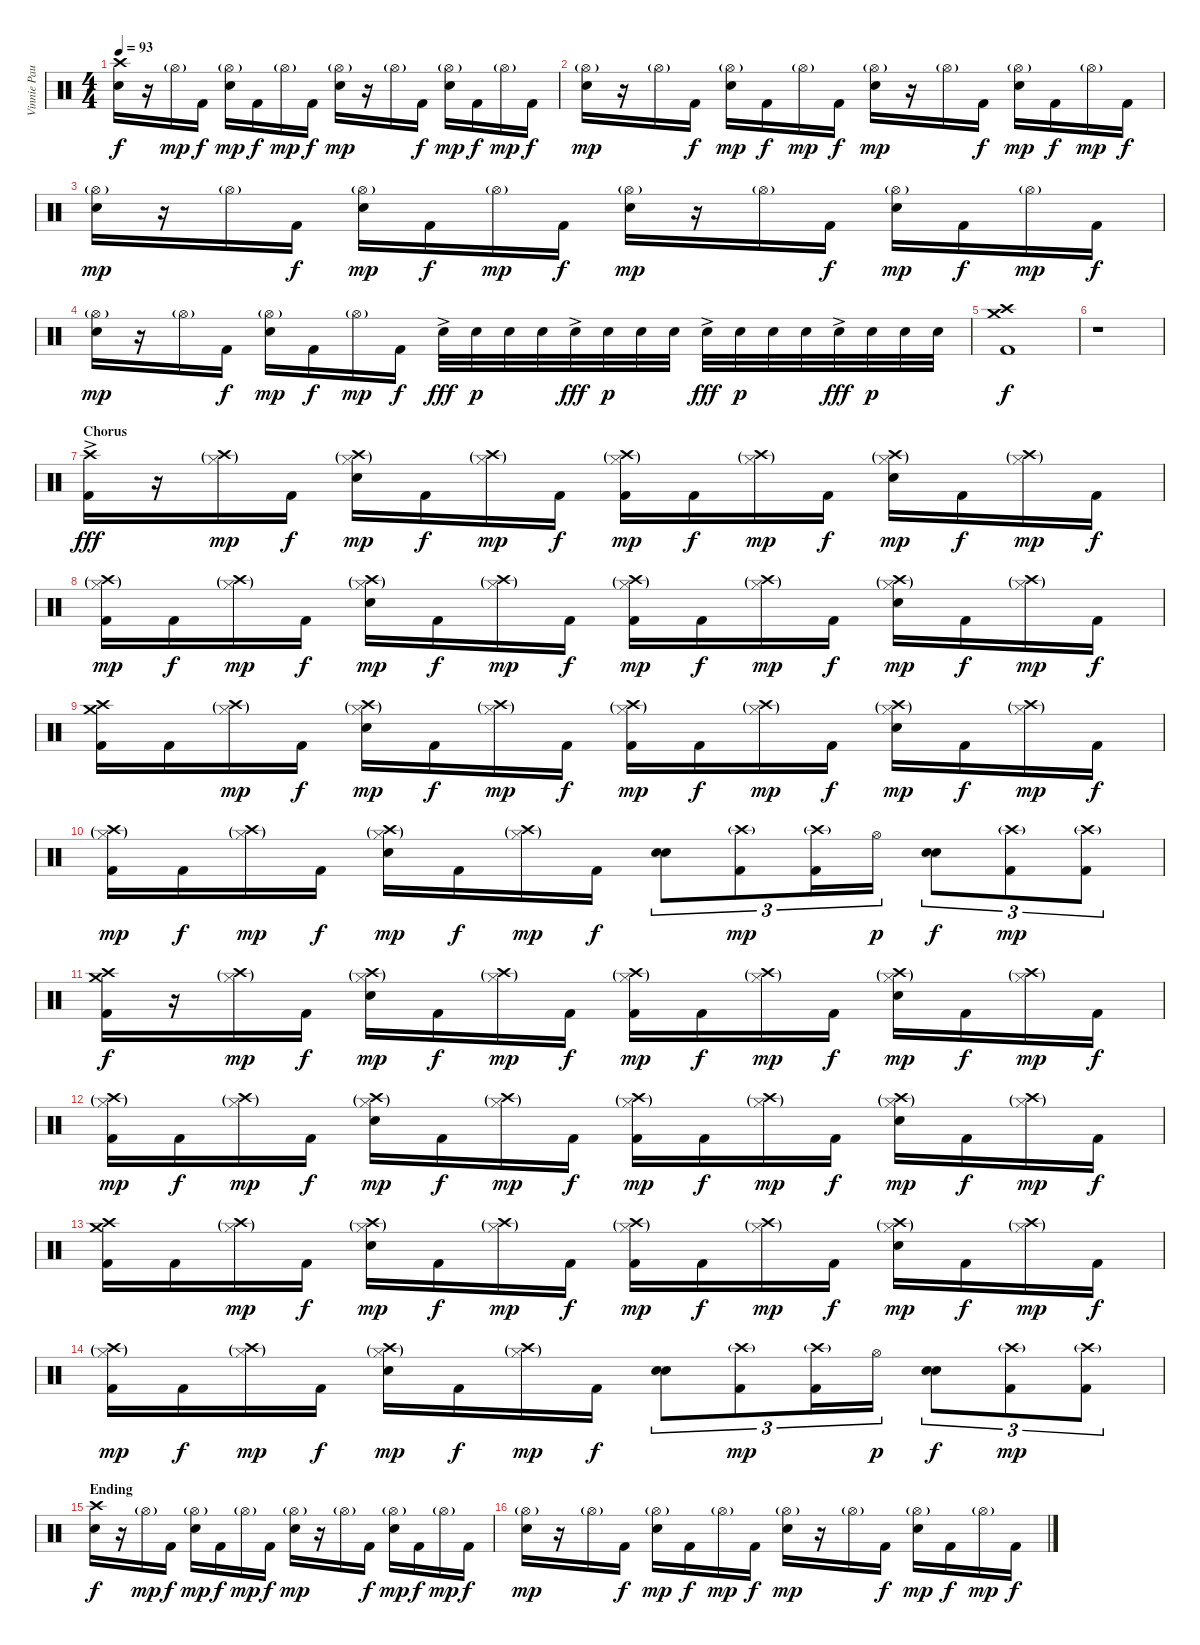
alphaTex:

\track ("Vinnie Paul" "Vinnie Pau") {instrument percussion}
\staff {score}
\articulation defaults
\ts (4 4)
\tempo 93
\clef neutral
\ks c
("Crash high (hit)" "Electric Snare (hit)").16{dy f} r.16 "Hi-Hat (open)"{g}.16{dy mp} "Kick (hit) 2".16{dy f} ("Hi-Hat (open)"{g} "Electric Snare (hit)").16{dy mp} "Kick (hit) 2".16{dy f} "Hi-Hat (open)"{g}.16{dy mp} "Kick (hit) 2".16{dy f} ("Hi-Hat (open)"{g} "Electric Snare (hit)").16{dy mp} r.16 "Hi-Hat (open)"{g}.16 "Kick (hit) 2".16{dy f} ("Hi-Hat (open)"{g} "Electric Snare (hit)").16{dy mp} "Kick (hit) 2".16{dy f} "Hi-Hat (open)"{g}.16{dy mp} "Kick (hit) 2".16{dy f} |
("Hi-Hat (open)"{g} "Electric Snare (hit)").16{dy mp} r.16 "Hi-Hat (open)"{g}.16 "Kick (hit) 2".16{dy f} ("Hi-Hat (open)"{g} "Electric Snare (hit)").16{dy mp} "Kick (hit) 2".16{dy f} "Hi-Hat (open)"{g}.16{dy mp} "Kick (hit) 2".16{dy f} ("Hi-Hat (open)"{g} "Electric Snare (hit)").16{dy mp} r.16 "Hi-Hat (open)"{g}.16 "Kick (hit) 2".16{dy f} ("Hi-Hat (open)"{g} "Electric Snare (hit)").16{dy mp} "Kick (hit) 2".16{dy f} "Hi-Hat (open)"{g}.16{dy mp} "Kick (hit) 2".16{dy f} |
("Hi-Hat (open)"{g} "Electric Snare (hit)").16{dy mp} r.16 "Hi-Hat (open)"{g}.16 "Kick (hit) 2".16{dy f} ("Hi-Hat (open)"{g} "Electric Snare (hit)").16{dy mp} "Kick (hit) 2".16{dy f} "Hi-Hat (open)"{g}.16{dy mp} "Kick (hit) 2".16{dy f} ("Hi-Hat (open)"{g} "Electric Snare (hit)").16{dy mp} r.16 "Hi-Hat (open)"{g}.16 "Kick (hit) 2".16{dy f} ("Hi-Hat (open)"{g} "Electric Snare (hit)").16{dy mp} "Kick (hit) 2".16{dy f} "Hi-Hat (open)"{g}.16{dy mp} "Kick (hit) 2".16{dy f} |
("Hi-Hat (open)"{g} "Electric Snare (hit)").16{dy mp} r.16 "Hi-Hat (open)"{g}.16 "Kick (hit) 2".16{dy f} ("Hi-Hat (open)"{g} "Electric Snare (hit)").16{dy mp} "Kick (hit) 2".16{dy f} "Hi-Hat (open)"{g}.16{dy mp} "Kick (hit) 2".16{dy f} "Electric Snare (hit)"{ac}.32{dy fff} "Electric Snare (hit)".32{dy p} "Electric Snare (hit)".32 "Electric Snare (hit)".32 "Electric Snare (hit)"{ac}.32{dy fff} "Electric Snare (hit)".32{dy p} "Electric Snare (hit)".32 "Electric Snare (hit)".32 "Electric Snare (hit)"{ac}.32{dy fff} "Electric Snare (hit)".32{dy p} "Electric Snare (hit)".32 "Electric Snare (hit)".32 "Electric Snare (hit)"{ac}.32{dy fff} "Electric Snare (hit)".32{dy p} "Electric Snare (hit)".32 "Electric Snare (hit)".32 |
("Crash high (hit)" "Crash medium (hit)" "Kick (hit) 2").1{dy f} |
r.1 |
\section ("" "Chorus")
("Crash high (hit)" "Kick (hit) 2"{ac}).16{dy fff} r.16 ("Crash high (hit)"{g} "Hi-Hat (closed)"{g}).16{dy mp} "Kick (hit) 2".16{dy f} ("Crash high (hit)"{g} "Hi-Hat (closed)"{g} "Electric Snare (hit)").16{dy mp} "Kick (hit) 2".16{dy f} ("Crash high (hit)"{g} "Hi-Hat (closed)"{g}).16{dy mp} "Kick (hit) 2".16{dy f} ("Crash high (hit)"{g} "Hi-Hat (closed)"{g} "Kick (hit) 2").16{dy mp} "Kick (hit) 2".16{dy f} ("Crash high (hit)"{g} "Hi-Hat (closed)"{g}).16{dy mp} "Kick (hit) 2".16{dy f} ("Crash high (hit)"{g} "Hi-Hat (closed)"{g} "Electric Snare (hit)").16{dy mp} "Kick (hit) 2".16{dy f} ("Crash high (hit)"{g} "Hi-Hat (closed)"{g}).16{dy mp} "Kick (hit) 2".16{dy f} |
("Crash high (hit)"{g} "Hi-Hat (closed)"{g} "Kick (hit) 2").16{dy mp} "Kick (hit) 2".16{dy f} ("Crash high (hit)"{g} "Hi-Hat (closed)"{g}).16{dy mp} "Kick (hit) 2".16{dy f} ("Crash high (hit)"{g} "Hi-Hat (closed)"{g} "Electric Snare (hit)").16{dy mp} "Kick (hit) 2".16{dy f} ("Crash high (hit)"{g} "Hi-Hat (closed)"{g}).16{dy mp} "Kick (hit) 2".16{dy f} ("Crash high (hit)"{g} "Hi-Hat (closed)"{g} "Kick (hit) 2").16{dy mp} "Kick (hit) 2".16{dy f} ("Crash high (hit)"{g} "Hi-Hat (closed)"{g}).16{dy mp} "Kick (hit) 2".16{dy f} ("Crash high (hit)"{g} "Hi-Hat (closed)"{g} "Electric Snare (hit)").16{dy mp} "Kick (hit) 2".16{dy f} ("Crash high (hit)"{g} "Hi-Hat (closed)"{g}).16{dy mp} "Kick (hit) 2".16{dy f} |
("Crash high (hit)" "Crash medium (hit)" "Kick (hit) 2").16 "Kick (hit) 2".16 ("Crash high (hit)"{g} "Hi-Hat (closed)"{g}).16{dy mp} "Kick (hit) 2".16{dy f} ("Crash high (hit)"{g} "Hi-Hat (closed)"{g} "Electric Snare (hit)").16{dy mp} "Kick (hit) 2".16{dy f} ("Crash high (hit)"{g} "Hi-Hat (closed)"{g}).16{dy mp} "Kick (hit) 2".16{dy f} ("Crash high (hit)"{g} "Hi-Hat (closed)"{g} "Kick (hit) 2").16{dy mp} "Kick (hit) 2".16{dy f} ("Crash high (hit)"{g} "Hi-Hat (closed)"{g}).16{dy mp} "Kick (hit) 2".16{dy f} ("Crash high (hit)"{g} "Hi-Hat (closed)"{g} "Electric Snare (hit)").16{dy mp} "Kick (hit) 2".16{dy f} ("Crash high (hit)"{g} "Hi-Hat (closed)"{g}).16{dy mp} "Kick (hit) 2".16{dy f} |
("Crash high (hit)"{g} "Hi-Hat (closed)"{g} "Kick (hit) 2").16{dy mp} "Kick (hit) 2".16{dy f} ("Crash high (hit)"{g} "Hi-Hat (closed)"{g}).16{dy mp} "Kick (hit) 2".16{dy f} ("Crash high (hit)"{g} "Hi-Hat (closed)"{g} "Electric Snare (hit)").16{dy mp} "Kick (hit) 2".16{dy f} ("Crash high (hit)"{g} "Hi-Hat (closed)"{g}).16{dy mp} "Kick (hit) 2".16{dy f} ("Electric Snare (hit)" "Electric Snare (hit)").8{tu (3 2) bd 480} ("Crash high (hit)"{g} "Kick (hit) 2").8{tu (3 2) dy mp} ("Crash high (hit)"{g} "Kick (hit) 2").16{tu (3 2)} "Hi-Hat (open)".16{tu (3 2) dy p} ("Electric Snare (hit)" "Electric Snare (hit)").8{tu (3 2) bd 480 dy f} ("Crash high (hit)"{g} "Kick (hit) 2").8{tu (3 2) dy mp} ("Crash high (hit)"{g} "Kick (hit) 2").8{tu (3 2)} |
("Crash high (hit)" "Crash medium (hit)" "Kick (hit) 2").16{dy f} r.16 ("Crash high (hit)"{g} "Hi-Hat (closed)"{g}).16{dy mp} "Kick (hit) 2".16{dy f} ("Crash high (hit)"{g} "Hi-Hat (closed)"{g} "Electric Snare (hit)").16{dy mp} "Kick (hit) 2".16{dy f} ("Crash high (hit)"{g} "Hi-Hat (closed)"{g}).16{dy mp} "Kick (hit) 2".16{dy f} ("Crash high (hit)"{g} "Hi-Hat (closed)"{g} "Kick (hit) 2").16{dy mp} "Kick (hit) 2".16{dy f} ("Crash high (hit)"{g} "Hi-Hat (closed)"{g}).16{dy mp} "Kick (hit) 2".16{dy f} ("Crash high (hit)"{g} "Hi-Hat (closed)"{g} "Electric Snare (hit)").16{dy mp} "Kick (hit) 2".16{dy f} ("Crash high (hit)"{g} "Hi-Hat (closed)"{g}).16{dy mp} "Kick (hit) 2".16{dy f} |
("Crash high (hit)"{g} "Hi-Hat (closed)"{g} "Kick (hit) 2").16{dy mp} "Kick (hit) 2".16{dy f} ("Crash high (hit)"{g} "Hi-Hat (closed)"{g}).16{dy mp} "Kick (hit) 2".16{dy f} ("Crash high (hit)"{g} "Hi-Hat (closed)"{g} "Electric Snare (hit)").16{dy mp} "Kick (hit) 2".16{dy f} ("Crash high (hit)"{g} "Hi-Hat (closed)"{g}).16{dy mp} "Kick (hit) 2".16{dy f} ("Crash high (hit)"{g} "Hi-Hat (closed)"{g} "Kick (hit) 2").16{dy mp} "Kick (hit) 2".16{dy f} ("Crash high (hit)"{g} "Hi-Hat (closed)"{g}).16{dy mp} "Kick (hit) 2".16{dy f} ("Crash high (hit)"{g} "Hi-Hat (closed)"{g} "Electric Snare (hit)").16{dy mp} "Kick (hit) 2".16{dy f} ("Crash high (hit)"{g} "Hi-Hat (closed)"{g}).16{dy mp} "Kick (hit) 2".16{dy f} |
("Crash high (hit)" "Crash medium (hit)" "Kick (hit) 2").16 "Kick (hit) 2".16 ("Crash high (hit)"{g} "Hi-Hat (closed)"{g}).16{dy mp} "Kick (hit) 2".16{dy f} ("Crash high (hit)"{g} "Hi-Hat (closed)"{g} "Electric Snare (hit)").16{dy mp} "Kick (hit) 2".16{dy f} ("Crash high (hit)"{g} "Hi-Hat (closed)"{g}).16{dy mp} "Kick (hit) 2".16{dy f} ("Crash high (hit)"{g} "Hi-Hat (closed)"{g} "Kick (hit) 2").16{dy mp} "Kick (hit) 2".16{dy f} ("Crash high (hit)"{g} "Hi-Hat (closed)"{g}).16{dy mp} "Kick (hit) 2".16{dy f} ("Crash high (hit)"{g} "Hi-Hat (closed)"{g} "Electric Snare (hit)").16{dy mp} "Kick (hit) 2".16{dy f} ("Crash high (hit)"{g} "Hi-Hat (closed)"{g}).16{dy mp} "Kick (hit) 2".16{dy f} |
("Crash high (hit)"{g} "Hi-Hat (closed)"{g} "Kick (hit) 2").16{dy mp} "Kick (hit) 2".16{dy f} ("Crash high (hit)"{g} "Hi-Hat (closed)"{g}).16{dy mp} "Kick (hit) 2".16{dy f} ("Crash high (hit)"{g} "Hi-Hat (closed)"{g} "Electric Snare (hit)").16{dy mp} "Kick (hit) 2".16{dy f} ("Crash high (hit)"{g} "Hi-Hat (closed)"{g}).16{dy mp} "Kick (hit) 2".16{dy f} ("Electric Snare (hit)" "Electric Snare (hit)").8{tu (3 2) bd 480} ("Crash high (hit)"{g} "Kick (hit) 2").8{tu (3 2) dy mp} ("Crash high (hit)"{g} "Kick (hit) 2").16{tu (3 2)} "Hi-Hat (open)".16{tu (3 2) dy p} ("Electric Snare (hit)" "Electric Snare (hit)").8{tu (3 2) bd 480 dy f} ("Crash high (hit)"{g} "Kick (hit) 2").8{tu (3 2) dy mp} ("Crash high (hit)"{g} "Kick (hit) 2").8{tu (3 2)} |
\section ("" "Ending")
("Crash high (hit)" "Electric Snare (hit)").16{dy f} r.16 "Hi-Hat (open)"{g}.16{dy mp} "Kick (hit) 2".16{dy f} ("Hi-Hat (open)"{g} "Electric Snare (hit)").16{dy mp} "Kick (hit) 2".16{dy f} "Hi-Hat (open)"{g}.16{dy mp} "Kick (hit) 2".16{dy f} ("Hi-Hat (open)"{g} "Electric Snare (hit)").16{dy mp} r.16 "Hi-Hat (open)"{g}.16 "Kick (hit) 2".16{dy f} ("Hi-Hat (open)"{g} "Electric Snare (hit)").16{dy mp} "Kick (hit) 2".16{dy f} "Hi-Hat (open)"{g}.16{dy mp} "Kick (hit) 2".16{dy f} |
("Hi-Hat (open)"{g} "Electric Snare (hit)").16{dy mp} r.16 "Hi-Hat (open)"{g}.16 "Kick (hit) 2".16{dy f} ("Hi-Hat (open)"{g} "Electric Snare (hit)").16{dy mp} "Kick (hit) 2".16{dy f} "Hi-Hat (open)"{g}.16{dy mp} "Kick (hit) 2".16{dy f} ("Hi-Hat (open)"{g} "Electric Snare (hit)").16{dy mp} r.16 "Hi-Hat (open)"{g}.16 "Kick (hit) 2".16{dy f} ("Hi-Hat (open)"{g} "Electric Snare (hit)").16{dy mp} "Kick (hit) 2".16{dy f} "Hi-Hat (open)"{g}.16{dy mp} "Kick (hit) 2".16{dy f}
